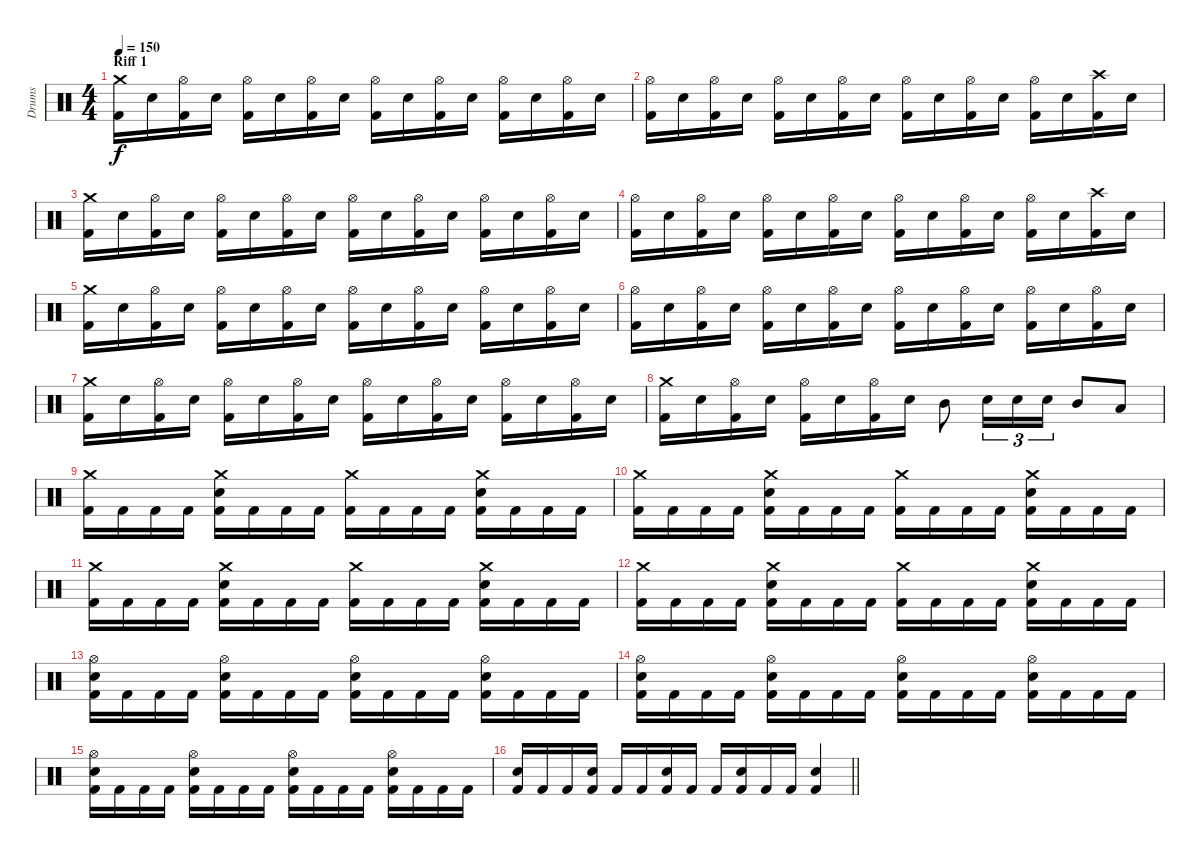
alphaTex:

\track ("Drums" "Drums") {instrument percussion}
\staff {score}
\articulation defaults
\ts (4 4)
\section ("" "Riff 1")
\tempo 150
\clef neutral
\ks c
("Crash medium (hit)" "Kick (hit) 2").16{dy f} "Snare (hit) 2".16 ("Hi-Hat (open)" "Kick (hit) 2").16 "Snare (hit) 2".16 ("Hi-Hat (open)" "Kick (hit) 2").16 "Snare (hit) 2".16 ("Hi-Hat (open)" "Kick (hit) 2").16 "Snare (hit) 2".16 ("Hi-Hat (open)" "Kick (hit) 2").16 "Snare (hit) 2".16 ("Hi-Hat (open)" "Kick (hit) 2").16 "Snare (hit) 2".16 ("Hi-Hat (open)" "Kick (hit) 2").16 "Snare (hit) 2".16 ("Hi-Hat (open)" "Kick (hit) 2").16 "Snare (hit) 2".16 |
("Hi-Hat (open)" "Kick (hit) 2").16 "Snare (hit) 2".16 ("Hi-Hat (open)" "Kick (hit) 2").16 "Snare (hit) 2".16 ("Hi-Hat (open)" "Kick (hit) 2").16 "Snare (hit) 2".16 ("Hi-Hat (open)" "Kick (hit) 2").16 "Snare (hit) 2".16 ("Hi-Hat (open)" "Kick (hit) 2").16 "Snare (hit) 2".16 ("Hi-Hat (open)" "Kick (hit) 2").16 "Snare (hit) 2".16 ("Hi-Hat (open)" "Kick (hit) 2").16 "Snare (hit) 2".16 ("Crash high (hit)" "Kick (hit) 2").16 "Snare (hit) 2".16 |
("Crash medium (hit)" "Kick (hit) 2").16 "Snare (hit) 2".16 ("Hi-Hat (open)" "Kick (hit) 2").16 "Snare (hit) 2".16 ("Hi-Hat (open)" "Kick (hit) 2").16 "Snare (hit) 2".16 ("Hi-Hat (open)" "Kick (hit) 2").16 "Snare (hit) 2".16 ("Hi-Hat (open)" "Kick (hit) 2").16 "Snare (hit) 2".16 ("Hi-Hat (open)" "Kick (hit) 2").16 "Snare (hit) 2".16 ("Hi-Hat (open)" "Kick (hit) 2").16 "Snare (hit) 2".16 ("Hi-Hat (open)" "Kick (hit) 2").16 "Snare (hit) 2".16 |
("Hi-Hat (open)" "Kick (hit) 2").16 "Snare (hit) 2".16 ("Hi-Hat (open)" "Kick (hit) 2").16 "Snare (hit) 2".16 ("Hi-Hat (open)" "Kick (hit) 2").16 "Snare (hit) 2".16 ("Hi-Hat (open)" "Kick (hit) 2").16 "Snare (hit) 2".16 ("Hi-Hat (open)" "Kick (hit) 2").16 "Snare (hit) 2".16 ("Hi-Hat (open)" "Kick (hit) 2").16 "Snare (hit) 2".16 ("Hi-Hat (open)" "Kick (hit) 2").16 "Snare (hit) 2".16 ("Crash high (hit)" "Kick (hit) 2").16 "Snare (hit) 2".16 |
("Crash medium (hit)" "Kick (hit) 2").16 "Snare (hit) 2".16 ("Hi-Hat (open)" "Kick (hit) 2").16 "Snare (hit) 2".16 ("Hi-Hat (open)" "Kick (hit) 2").16 "Snare (hit) 2".16 ("Hi-Hat (open)" "Kick (hit) 2").16 "Snare (hit) 2".16 ("Hi-Hat (open)" "Kick (hit) 2").16 "Snare (hit) 2".16 ("Hi-Hat (open)" "Kick (hit) 2").16 "Snare (hit) 2".16 ("Hi-Hat (open)" "Kick (hit) 2").16 "Snare (hit) 2".16 ("Hi-Hat (open)" "Kick (hit) 2").16 "Snare (hit) 2".16 |
("Hi-Hat (open)" "Kick (hit) 2").16 "Snare (hit) 2".16 ("Hi-Hat (open)" "Kick (hit) 2").16 "Snare (hit) 2".16 ("Hi-Hat (open)" "Kick (hit) 2").16 "Snare (hit) 2".16 ("Hi-Hat (open)" "Kick (hit) 2").16 "Snare (hit) 2".16 ("Hi-Hat (open)" "Kick (hit) 2").16 "Snare (hit) 2".16 ("Hi-Hat (open)" "Kick (hit) 2").16 "Snare (hit) 2".16 ("Hi-Hat (open)" "Kick (hit) 2").16 "Snare (hit) 2".16 ("Hi-Hat (open)" "Kick (hit) 2").16 "Snare (hit) 2".16 |
("Crash medium (hit)" "Kick (hit) 2").16 "Snare (hit) 2".16 ("Hi-Hat (open)" "Kick (hit) 2").16 "Snare (hit) 2".16 ("Hi-Hat (open)" "Kick (hit) 2").16 "Snare (hit) 2".16 ("Hi-Hat (open)" "Kick (hit) 2").16 "Snare (hit) 2".16 ("Hi-Hat (open)" "Kick (hit) 2").16 "Snare (hit) 2".16 ("Hi-Hat (open)" "Kick (hit) 2").16 "Snare (hit) 2".16 ("Hi-Hat (open)" "Kick (hit) 2").16 "Snare (hit) 2".16 ("Hi-Hat (open)" "Kick (hit) 2").16 "Snare (hit) 2".16 |
("Crash medium (hit)" "Kick (hit) 2").16 "Snare (hit) 2".16 ("Hi-Hat (open)" "Kick (hit) 2").16 "Snare (hit) 2".16 ("Hi-Hat (open)" "Kick (hit) 2").16 "Snare (hit) 2".16 ("Hi-Hat (open)" "Kick (hit) 2").16 "Snare (hit) 2".16 "Mid Tom (hit)".8 "Snare (hit) 2".16{tu (3 2)} "Snare (hit) 2".16{tu (3 2)} "Snare (hit) 2".16{tu (3 2)} "Mid Tom (hit)".8 "Low Tom (hit)".8 |
("Crash medium (hit)" "Kick (hit) 2").16 "Kick (hit) 2".16 "Kick (hit) 2".16 "Kick (hit) 2".16 ("Crash medium (hit)" "Snare (hit) 2" "Kick (hit) 2").16 "Kick (hit) 2".16 "Kick (hit) 2".16 "Kick (hit) 2".16 ("Crash medium (hit)" "Kick (hit) 2").16 "Kick (hit) 2".16 "Kick (hit) 2".16 "Kick (hit) 2".16 ("Crash medium (hit)" "Snare (hit) 2" "Kick (hit) 2").16 "Kick (hit) 2".16 "Kick (hit) 2".16 "Kick (hit) 2".16 |
("Crash medium (hit)" "Kick (hit) 2").16 "Kick (hit) 2".16 "Kick (hit) 2".16 "Kick (hit) 2".16 ("Crash medium (hit)" "Snare (hit) 2" "Kick (hit) 2").16 "Kick (hit) 2".16 "Kick (hit) 2".16 "Kick (hit) 2".16 ("Crash medium (hit)" "Kick (hit) 2").16 "Kick (hit) 2".16 "Kick (hit) 2".16 "Kick (hit) 2".16 ("Crash medium (hit)" "Snare (hit) 2" "Kick (hit) 2").16 "Kick (hit) 2".16 "Kick (hit) 2".16 "Kick (hit) 2".16 |
("Crash medium (hit)" "Kick (hit) 2").16 "Kick (hit) 2".16 "Kick (hit) 2".16 "Kick (hit) 2".16 ("Crash medium (hit)" "Snare (hit) 2" "Kick (hit) 2").16 "Kick (hit) 2".16 "Kick (hit) 2".16 "Kick (hit) 2".16 ("Crash medium (hit)" "Kick (hit) 2").16 "Kick (hit) 2".16 "Kick (hit) 2".16 "Kick (hit) 2".16 ("Crash medium (hit)" "Snare (hit) 2" "Kick (hit) 2").16 "Kick (hit) 2".16 "Kick (hit) 2".16 "Kick (hit) 2".16 |
("Crash medium (hit)" "Kick (hit) 2").16 "Kick (hit) 2".16 "Kick (hit) 2".16 "Kick (hit) 2".16 ("Crash medium (hit)" "Snare (hit) 2" "Kick (hit) 2").16 "Kick (hit) 2".16 "Kick (hit) 2".16 "Kick (hit) 2".16 ("Crash medium (hit)" "Kick (hit) 2").16 "Kick (hit) 2".16 "Kick (hit) 2".16 "Kick (hit) 2".16 ("Crash medium (hit)" "Snare (hit) 2" "Kick (hit) 2").16 "Kick (hit) 2".16 "Kick (hit) 2".16 "Kick (hit) 2".16 |
("Hi-Hat (open)" "Snare (hit) 2" "Kick (hit) 2").16 "Kick (hit) 2".16 "Kick (hit) 2".16 "Kick (hit) 2".16 ("Hi-Hat (open)" "Snare (hit) 2" "Kick (hit) 2").16 "Kick (hit) 2".16 "Kick (hit) 2".16 "Kick (hit) 2".16 ("Hi-Hat (open)" "Snare (hit) 2" "Kick (hit) 2").16 "Kick (hit) 2".16 "Kick (hit) 2".16 "Kick (hit) 2".16 ("Hi-Hat (open)" "Snare (hit) 2" "Kick (hit) 2").16 "Kick (hit) 2".16 "Kick (hit) 2".16 "Kick (hit) 2".16 |
("Hi-Hat (open)" "Snare (hit) 2" "Kick (hit) 2").16 "Kick (hit) 2".16 "Kick (hit) 2".16 "Kick (hit) 2".16 ("Hi-Hat (open)" "Snare (hit) 2" "Kick (hit) 2").16 "Kick (hit) 2".16 "Kick (hit) 2".16 "Kick (hit) 2".16 ("Hi-Hat (open)" "Snare (hit) 2" "Kick (hit) 2").16 "Kick (hit) 2".16 "Kick (hit) 2".16 "Kick (hit) 2".16 ("Hi-Hat (open)" "Snare (hit) 2" "Kick (hit) 2").16 "Kick (hit) 2".16 "Kick (hit) 2".16 "Kick (hit) 2".16 |
("Hi-Hat (open)" "Snare (hit) 2" "Kick (hit) 2").16 "Kick (hit) 2".16 "Kick (hit) 2".16 "Kick (hit) 2".16 ("Hi-Hat (open)" "Snare (hit) 2" "Kick (hit) 2").16 "Kick (hit) 2".16 "Kick (hit) 2".16 "Kick (hit) 2".16 ("Hi-Hat (open)" "Snare (hit) 2" "Kick (hit) 2").16 "Kick (hit) 2".16 "Kick (hit) 2".16 "Kick (hit) 2".16 ("Hi-Hat (open)" "Snare (hit) 2" "Kick (hit) 2").16 "Kick (hit) 2".16 "Kick (hit) 2".16 "Kick (hit) 2".16 |
\barLineRight lightlight
("Snare (hit) 2" "Kick (hit) 2").16 "Kick (hit) 2".16 "Kick (hit) 2".16 ("Snare (hit) 2" "Kick (hit) 2").16 "Kick (hit) 2".16 "Kick (hit) 2".16 ("Snare (hit) 2" "Kick (hit) 2").16 "Kick (hit) 2".16 "Kick (hit) 2".16 ("Snare (hit) 2" "Kick (hit) 2").16 "Kick (hit) 2".16 "Kick (hit) 2".16 ("Snare (hit) 2" "Kick (hit) 2").4
